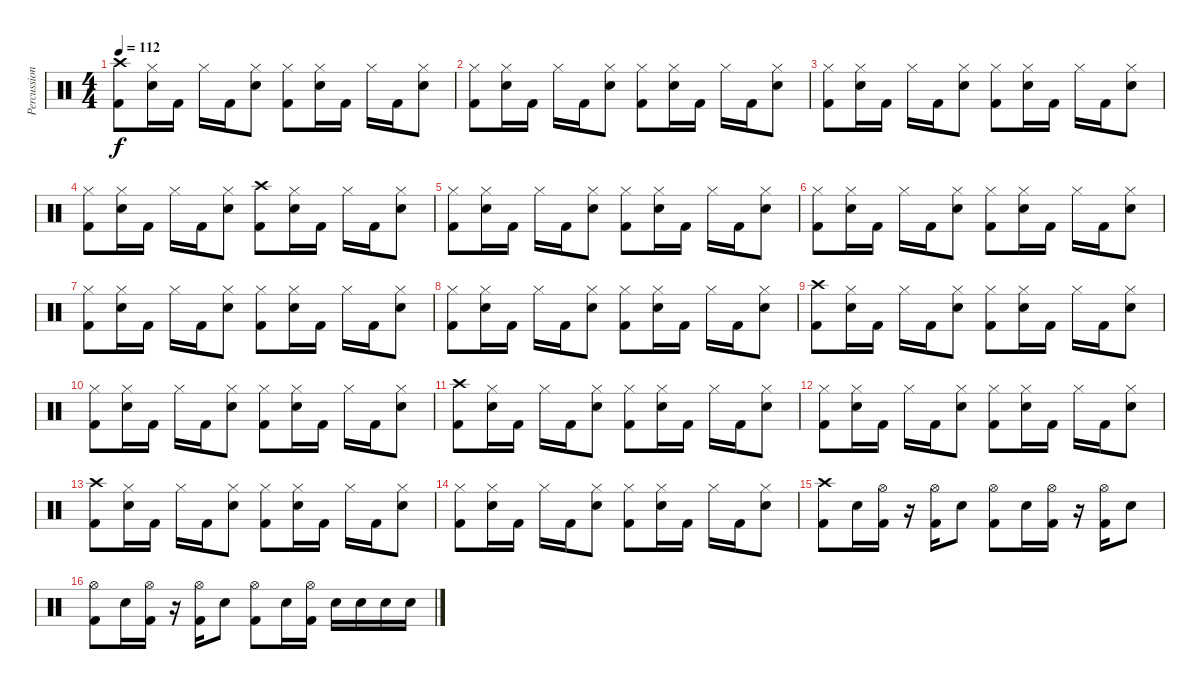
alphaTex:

\track ("Percussion" "Percussion") {instrument percussion}
\staff {score}
\articulation defaults
\ts (4 4)
\tempo 112
\clef neutral
\ks c
("Crash high (hit)" "Kick (hit) 2").8{dy f} ("Hi-Hat (closed)" "Snare (hit) 2").16 "Kick (hit) 2".16 "Hi-Hat (closed)".16 "Kick (hit) 2".16 ("Hi-Hat (closed)" "Snare (hit) 2").8 ("Hi-Hat (closed)" "Kick (hit) 2").8 ("Hi-Hat (closed)" "Snare (hit) 2").16 "Kick (hit) 2".16 "Hi-Hat (closed)".16 "Kick (hit) 2".16 ("Hi-Hat (closed)" "Snare (hit) 2").8 |
("Hi-Hat (closed)" "Kick (hit) 2").8 ("Hi-Hat (closed)" "Snare (hit) 2").16 "Kick (hit) 2".16 "Hi-Hat (closed)".16 "Kick (hit) 2".16 ("Hi-Hat (closed)" "Snare (hit) 2").8 ("Hi-Hat (closed)" "Kick (hit) 2").8 ("Hi-Hat (closed)" "Snare (hit) 2").16 "Kick (hit) 2".16 "Hi-Hat (closed)".16 "Kick (hit) 2".16 ("Hi-Hat (closed)" "Snare (hit) 2").8 |
("Hi-Hat (closed)" "Kick (hit) 2").8 ("Hi-Hat (closed)" "Snare (hit) 2").16 "Kick (hit) 2".16 "Hi-Hat (closed)".16 "Kick (hit) 2".16 ("Hi-Hat (closed)" "Snare (hit) 2").8 ("Hi-Hat (closed)" "Kick (hit) 2").8 ("Hi-Hat (closed)" "Snare (hit) 2").16 "Kick (hit) 2".16 "Hi-Hat (closed)".16 "Kick (hit) 2".16 ("Hi-Hat (closed)" "Snare (hit) 2").8 |
("Hi-Hat (closed)" "Kick (hit) 2").8 ("Hi-Hat (closed)" "Snare (hit) 2").16 "Kick (hit) 2".16 "Hi-Hat (closed)".16 "Kick (hit) 2".16 ("Hi-Hat (closed)" "Snare (hit) 2").8 ("Crash high (hit)" "Kick (hit) 2").8 ("Hi-Hat (closed)" "Snare (hit) 2").16 "Kick (hit) 2".16 "Hi-Hat (closed)".16 "Kick (hit) 2".16 ("Hi-Hat (closed)" "Snare (hit) 2").8 |
("Hi-Hat (closed)" "Kick (hit) 2").8 ("Hi-Hat (closed)" "Snare (hit) 2").16 "Kick (hit) 2".16 "Hi-Hat (closed)".16 "Kick (hit) 2".16 ("Hi-Hat (closed)" "Snare (hit) 2").8 ("Hi-Hat (closed)" "Kick (hit) 2").8 ("Hi-Hat (closed)" "Snare (hit) 2").16 "Kick (hit) 2".16 "Hi-Hat (closed)".16 "Kick (hit) 2".16 ("Hi-Hat (closed)" "Snare (hit) 2").8 |
("Hi-Hat (closed)" "Kick (hit) 2").8 ("Hi-Hat (closed)" "Snare (hit) 2").16 "Kick (hit) 2".16 "Hi-Hat (closed)".16 "Kick (hit) 2".16 ("Hi-Hat (closed)" "Snare (hit) 2").8 ("Hi-Hat (closed)" "Kick (hit) 2").8 ("Hi-Hat (closed)" "Snare (hit) 2").16 "Kick (hit) 2".16 "Hi-Hat (closed)".16 "Kick (hit) 2".16 ("Hi-Hat (closed)" "Snare (hit) 2").8 |
("Hi-Hat (closed)" "Kick (hit) 2").8 ("Hi-Hat (closed)" "Snare (hit) 2").16 "Kick (hit) 2".16 "Hi-Hat (closed)".16 "Kick (hit) 2".16 ("Hi-Hat (closed)" "Snare (hit) 2").8 ("Hi-Hat (closed)" "Kick (hit) 2").8 ("Hi-Hat (closed)" "Snare (hit) 2").16 "Kick (hit) 2".16 "Hi-Hat (closed)".16 "Kick (hit) 2".16 ("Hi-Hat (closed)" "Snare (hit) 2").8 |
("Hi-Hat (closed)" "Kick (hit) 2").8 ("Hi-Hat (closed)" "Snare (hit) 2").16 "Kick (hit) 2".16 "Hi-Hat (closed)".16 "Kick (hit) 2".16 ("Hi-Hat (closed)" "Snare (hit) 2").8 ("Hi-Hat (closed)" "Kick (hit) 2").8 ("Hi-Hat (closed)" "Snare (hit) 2").16 "Kick (hit) 2".16 "Hi-Hat (closed)".16 "Kick (hit) 2".16 ("Hi-Hat (closed)" "Snare (hit) 2").8 |
("Crash high (hit)" "Kick (hit) 2").8 ("Hi-Hat (closed)" "Snare (hit) 2").16 "Kick (hit) 2".16 "Hi-Hat (closed)".16 "Kick (hit) 2".16 ("Hi-Hat (closed)" "Snare (hit) 2").8 ("Hi-Hat (closed)" "Kick (hit) 2").8 ("Hi-Hat (closed)" "Snare (hit) 2").16 "Kick (hit) 2".16 "Hi-Hat (closed)".16 "Kick (hit) 2".16 ("Hi-Hat (closed)" "Snare (hit) 2").8 |
("Hi-Hat (closed)" "Kick (hit) 2").8 ("Hi-Hat (closed)" "Snare (hit) 2").16 "Kick (hit) 2".16 "Hi-Hat (closed)".16 "Kick (hit) 2".16 ("Hi-Hat (closed)" "Snare (hit) 2").8 ("Hi-Hat (closed)" "Kick (hit) 2").8 ("Hi-Hat (closed)" "Snare (hit) 2").16 "Kick (hit) 2".16 "Hi-Hat (closed)".16 "Kick (hit) 2".16 ("Hi-Hat (closed)" "Snare (hit) 2").8 |
("Crash high (hit)" "Kick (hit) 2").8 ("Hi-Hat (closed)" "Snare (hit) 2").16 "Kick (hit) 2".16 "Hi-Hat (closed)".16 "Kick (hit) 2".16 ("Hi-Hat (closed)" "Snare (hit) 2").8 ("Hi-Hat (closed)" "Kick (hit) 2").8 ("Hi-Hat (closed)" "Snare (hit) 2").16 "Kick (hit) 2".16 "Hi-Hat (closed)".16 "Kick (hit) 2".16 ("Hi-Hat (closed)" "Snare (hit) 2").8 |
("Hi-Hat (closed)" "Kick (hit) 2").8 ("Hi-Hat (closed)" "Snare (hit) 2").16 "Kick (hit) 2".16 "Hi-Hat (closed)".16 "Kick (hit) 2".16 ("Hi-Hat (closed)" "Snare (hit) 2").8 ("Hi-Hat (closed)" "Kick (hit) 2").8 ("Hi-Hat (closed)" "Snare (hit) 2").16 "Kick (hit) 2".16 "Hi-Hat (closed)".16 "Kick (hit) 2".16 ("Hi-Hat (closed)" "Snare (hit) 2").8 |
("Crash high (hit)" "Kick (hit) 2").8 ("Hi-Hat (closed)" "Snare (hit) 2").16 "Kick (hit) 2".16 "Hi-Hat (closed)".16 "Kick (hit) 2".16 ("Hi-Hat (closed)" "Snare (hit) 2").8 ("Hi-Hat (closed)" "Kick (hit) 2").8 ("Hi-Hat (closed)" "Snare (hit) 2").16 "Kick (hit) 2".16 "Hi-Hat (closed)".16 "Kick (hit) 2".16 ("Hi-Hat (closed)" "Snare (hit) 2").8 |
("Hi-Hat (closed)" "Kick (hit) 2").8 ("Hi-Hat (closed)" "Snare (hit) 2").16 "Kick (hit) 2".16 "Hi-Hat (closed)".16 "Kick (hit) 2".16 ("Hi-Hat (closed)" "Snare (hit) 2").8 ("Hi-Hat (closed)" "Kick (hit) 2").8 ("Hi-Hat (closed)" "Snare (hit) 2").16 "Kick (hit) 2".16 "Hi-Hat (closed)".16 "Kick (hit) 2".16 ("Hi-Hat (closed)" "Snare (hit) 2").8 |
("Crash high (hit)" "Kick (hit) 2").8 "Snare (hit) 2".16 ("Hi-Hat (open)" "Kick (hit) 2").16 r.16 ("Hi-Hat (open)" "Kick (hit) 2").16 "Snare (hit) 2".8 ("Hi-Hat (open)" "Kick (hit) 2").8 "Snare (hit) 2".16 ("Hi-Hat (open)" "Kick (hit) 2").16 r.16 ("Hi-Hat (open)" "Kick (hit) 2").16 "Snare (hit) 2".8 |
("Hi-Hat (open)" "Kick (hit) 2").8 "Snare (hit) 2".16 ("Hi-Hat (open)" "Kick (hit) 2").16 r.16 ("Hi-Hat (open)" "Kick (hit) 2").16 "Snare (hit) 2".8 ("Hi-Hat (open)" "Kick (hit) 2").8 "Snare (hit) 2".16 ("Hi-Hat (open)" "Kick (hit) 2").16 "Snare (hit) 2".16 "Snare (hit) 2".16 "Snare (hit) 2".16 "Snare (hit) 2".16
